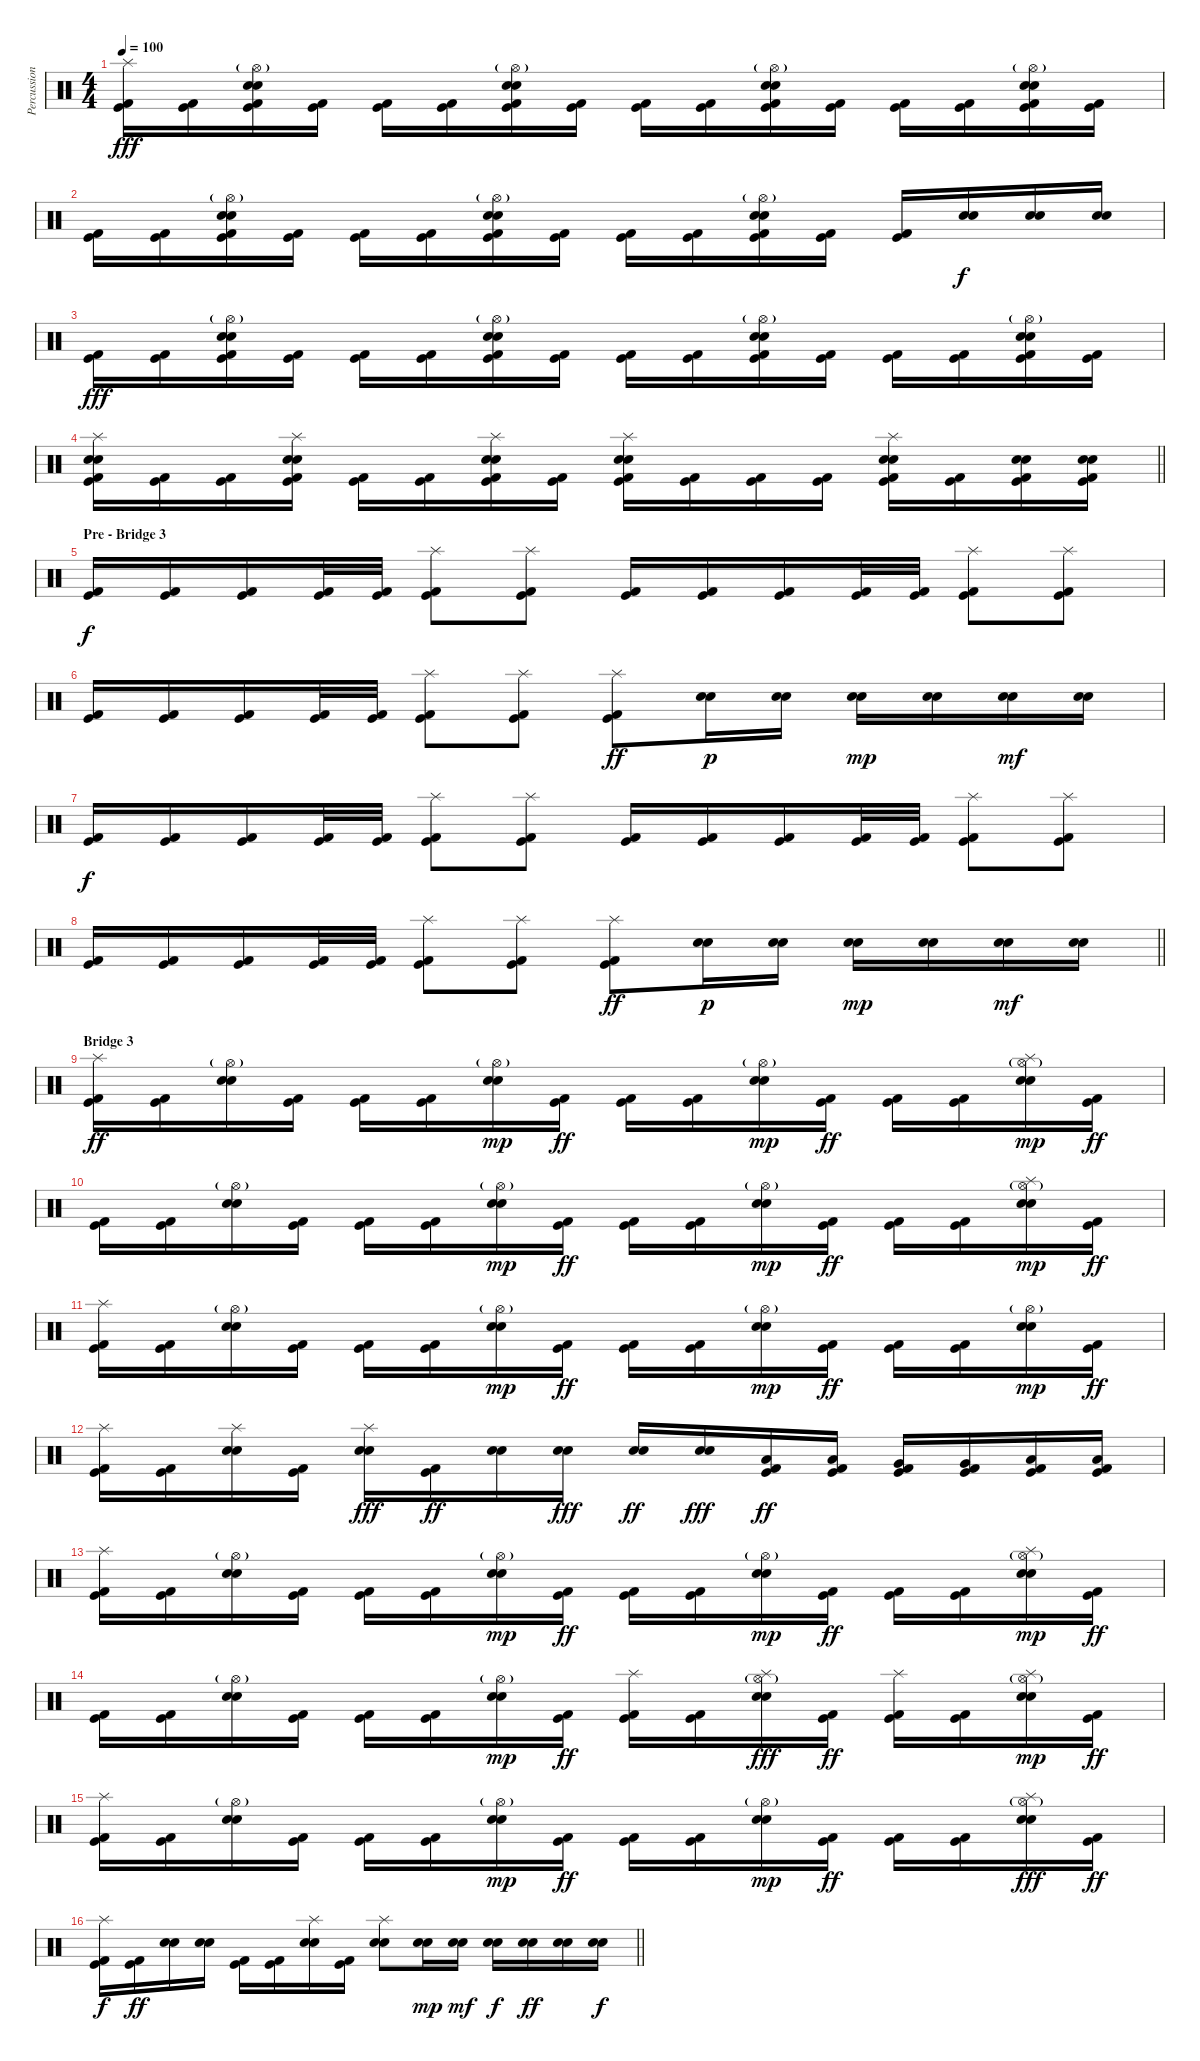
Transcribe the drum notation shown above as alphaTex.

\track ("Percussion" "Percussion") {instrument percussion}
\staff {score}
\articulation defaults
\ts (4 4)
\tempo 100
\clef neutral
\ks c
("Splash (hit)" "Kick (hit)" "Kick (hit) 2").16{dy fff} ("Kick (hit)" "Kick (hit) 2").16 ("Electric Snare (hit)" "Snare (hit) 2" "Hi-Hat (open)"{g} "Kick (hit)" "Kick (hit) 2").16 ("Kick (hit)" "Kick (hit) 2").16 ("Kick (hit)" "Kick (hit) 2").16 ("Kick (hit)" "Kick (hit) 2").16 ("Electric Snare (hit)" "Snare (hit) 2" "Hi-Hat (open)"{g} "Kick (hit)" "Kick (hit) 2").16 ("Kick (hit)" "Kick (hit) 2").16 ("Kick (hit)" "Kick (hit) 2").16 ("Kick (hit)" "Kick (hit) 2").16 ("Electric Snare (hit)" "Snare (hit) 2" "Hi-Hat (open)"{g} "Kick (hit)" "Kick (hit) 2").16 ("Kick (hit)" "Kick (hit) 2").16 ("Kick (hit)" "Kick (hit) 2").16 ("Kick (hit)" "Kick (hit) 2").16 ("Electric Snare (hit)" "Snare (hit) 2" "Hi-Hat (open)"{g} "Kick (hit)" "Kick (hit) 2").16 ("Kick (hit)" "Kick (hit) 2").16 |
("Kick (hit)" "Kick (hit) 2").16 ("Kick (hit)" "Kick (hit) 2").16 ("Electric Snare (hit)" "Snare (hit) 2" "Hi-Hat (open)"{g} "Kick (hit)" "Kick (hit) 2").16 ("Kick (hit)" "Kick (hit) 2").16 ("Kick (hit)" "Kick (hit) 2").16 ("Kick (hit)" "Kick (hit) 2").16 ("Electric Snare (hit)" "Snare (hit) 2" "Hi-Hat (open)"{g} "Kick (hit)" "Kick (hit) 2").16 ("Kick (hit)" "Kick (hit) 2").16 ("Kick (hit)" "Kick (hit) 2").16 ("Kick (hit)" "Kick (hit) 2").16 ("Electric Snare (hit)" "Snare (hit) 2" "Hi-Hat (open)"{g} "Kick (hit)" "Kick (hit) 2").16 ("Kick (hit)" "Kick (hit) 2").16 ("Kick (hit)" "Kick (hit) 2").16 ("Electric Snare (hit)" "Snare (hit) 2").16{dy f} ("Electric Snare (hit)" "Snare (hit) 2").16 ("Electric Snare (hit)" "Snare (hit) 2").16 |
("Kick (hit)" "Kick (hit) 2").16{dy fff} ("Kick (hit)" "Kick (hit) 2").16 ("Electric Snare (hit)" "Snare (hit) 2" "Hi-Hat (open)"{g} "Kick (hit)" "Kick (hit) 2").16 ("Kick (hit)" "Kick (hit) 2").16 ("Kick (hit)" "Kick (hit) 2").16 ("Kick (hit)" "Kick (hit) 2").16 ("Electric Snare (hit)" "Snare (hit) 2" "Hi-Hat (open)"{g} "Kick (hit)" "Kick (hit) 2").16 ("Kick (hit)" "Kick (hit) 2").16 ("Kick (hit)" "Kick (hit) 2").16 ("Kick (hit)" "Kick (hit) 2").16 ("Electric Snare (hit)" "Snare (hit) 2" "Hi-Hat (open)"{g} "Kick (hit)" "Kick (hit) 2").16 ("Kick (hit)" "Kick (hit) 2").16 ("Kick (hit)" "Kick (hit) 2").16 ("Kick (hit)" "Kick (hit) 2").16 ("Electric Snare (hit)" "Snare (hit) 2" "Hi-Hat (open)"{g} "Kick (hit)" "Kick (hit) 2").16 ("Kick (hit)" "Kick (hit) 2").16 |
\barLineRight lightlight
("Splash (hit)" "Electric Snare (hit)" "Snare (hit) 2" "Kick (hit)" "Kick (hit) 2").16 ("Kick (hit)" "Kick (hit) 2").16 ("Kick (hit)" "Kick (hit) 2").16 ("Splash (hit)" "Electric Snare (hit)" "Snare (hit) 2" "Kick (hit)" "Kick (hit) 2").16 ("Kick (hit)" "Kick (hit) 2").16 ("Kick (hit)" "Kick (hit) 2").16 ("Splash (hit)" "Electric Snare (hit)" "Snare (hit) 2" "Kick (hit)" "Kick (hit) 2").16 ("Kick (hit)" "Kick (hit) 2").16 ("Splash (hit)" "Electric Snare (hit)" "Snare (hit) 2" "Kick (hit)" "Kick (hit) 2").16 ("Kick (hit)" "Kick (hit) 2").16 ("Kick (hit)" "Kick (hit) 2").16 ("Kick (hit)" "Kick (hit) 2").16 ("Splash (hit)" "Electric Snare (hit)" "Snare (hit) 2" "Kick (hit)" "Kick (hit) 2").16 ("Kick (hit)" "Kick (hit) 2").16 ("Electric Snare (hit)" "Snare (hit) 2" "Kick (hit)" "Kick (hit) 2").16 ("Electric Snare (hit)" "Snare (hit) 2" "Kick (hit)" "Kick (hit) 2").16 |
\section ("" "Pre - Bridge 3")
("Kick (hit)" "Kick (hit) 2").16{dy f} ("Kick (hit)" "Kick (hit) 2").16 ("Kick (hit)" "Kick (hit) 2").16 ("Kick (hit)" "Kick (hit) 2").32 ("Kick (hit)" "Kick (hit) 2").32 ("Splash (hit)" "Kick (hit)" "Kick (hit) 2").8 ("Splash (hit)" "Kick (hit)" "Kick (hit) 2").8 ("Kick (hit)" "Kick (hit) 2").16 ("Kick (hit)" "Kick (hit) 2").16 ("Kick (hit)" "Kick (hit) 2").16 ("Kick (hit)" "Kick (hit) 2").32 ("Kick (hit)" "Kick (hit) 2").32 ("Splash (hit)" "Kick (hit)" "Kick (hit) 2").8 ("Splash (hit)" "Kick (hit)" "Kick (hit) 2").8 |
("Kick (hit)" "Kick (hit) 2").16 ("Kick (hit)" "Kick (hit) 2").16 ("Kick (hit)" "Kick (hit) 2").16 ("Kick (hit)" "Kick (hit) 2").32 ("Kick (hit)" "Kick (hit) 2").32 ("Splash (hit)" "Kick (hit)" "Kick (hit) 2").8 ("Splash (hit)" "Kick (hit)" "Kick (hit) 2").8 ("Splash (hit)" "Kick (hit)" "Kick (hit) 2").8{dy ff} ("Snare (hit) 2" "Electric Snare (hit)").16{dy p} ("Snare (hit) 2" "Electric Snare (hit)").16 ("Snare (hit) 2" "Electric Snare (hit)").16{dy mp} ("Snare (hit) 2" "Electric Snare (hit)").16 ("Snare (hit) 2" "Electric Snare (hit)").16{dy mf} ("Snare (hit) 2" "Electric Snare (hit)").16 |
("Kick (hit)" "Kick (hit) 2").16{dy f} ("Kick (hit)" "Kick (hit) 2").16 ("Kick (hit)" "Kick (hit) 2").16 ("Kick (hit)" "Kick (hit) 2").32 ("Kick (hit)" "Kick (hit) 2").32 ("Splash (hit)" "Kick (hit)" "Kick (hit) 2").8 ("Splash (hit)" "Kick (hit)" "Kick (hit) 2").8 ("Kick (hit)" "Kick (hit) 2").16 ("Kick (hit)" "Kick (hit) 2").16 ("Kick (hit)" "Kick (hit) 2").16 ("Kick (hit)" "Kick (hit) 2").32 ("Kick (hit)" "Kick (hit) 2").32 ("Splash (hit)" "Kick (hit)" "Kick (hit) 2").8 ("Splash (hit)" "Kick (hit)" "Kick (hit) 2").8 |
\barLineRight lightlight
("Kick (hit)" "Kick (hit) 2").16 ("Kick (hit)" "Kick (hit) 2").16 ("Kick (hit)" "Kick (hit) 2").16 ("Kick (hit)" "Kick (hit) 2").32 ("Kick (hit)" "Kick (hit) 2").32 ("Splash (hit)" "Kick (hit)" "Kick (hit) 2").8 ("Splash (hit)" "Kick (hit)" "Kick (hit) 2").8 ("Splash (hit)" "Kick (hit)" "Kick (hit) 2").8{dy ff} ("Snare (hit) 2" "Electric Snare (hit)").16{dy p} ("Snare (hit) 2" "Electric Snare (hit)").16 ("Snare (hit) 2" "Electric Snare (hit)").16{dy mp} ("Snare (hit) 2" "Electric Snare (hit)").16 ("Snare (hit) 2" "Electric Snare (hit)").16{dy mf} ("Snare (hit) 2" "Electric Snare (hit)").16 |
\section ("" "Bridge 3")
("Splash (hit)" "Kick (hit)" "Kick (hit) 2").16{dy ff} ("Kick (hit)" "Kick (hit) 2").16 ("Hi-Hat (open)"{g} "Electric Snare (hit)" "Snare (hit) 2").16 ("Kick (hit)" "Kick (hit) 2").16 ("Kick (hit)" "Kick (hit) 2").16 ("Kick (hit)" "Kick (hit) 2").16 ("Hi-Hat (open)"{g} "Electric Snare (hit)" "Snare (hit) 2").16{dy mp} ("Kick (hit)" "Kick (hit) 2").16{dy ff} ("Kick (hit)" "Kick (hit) 2").16 ("Kick (hit)" "Kick (hit) 2").16 ("Hi-Hat (open)"{g} "Electric Snare (hit)" "Snare (hit) 2").16{dy mp} ("Kick (hit)" "Kick (hit) 2").16{dy ff} ("Kick (hit)" "Kick (hit) 2").16 ("Kick (hit)" "Kick (hit) 2").16 ("Hi-Hat (open)"{g} "Electric Snare (hit)" "Snare (hit) 2" "Splash (hit)").16{dy mp} ("Kick (hit)" "Kick (hit) 2").16{dy ff} |
("Kick (hit)" "Kick (hit) 2").16 ("Kick (hit)" "Kick (hit) 2").16 ("Hi-Hat (open)"{g} "Electric Snare (hit)" "Snare (hit) 2").16 ("Kick (hit)" "Kick (hit) 2").16 ("Kick (hit)" "Kick (hit) 2").16 ("Kick (hit)" "Kick (hit) 2").16 ("Hi-Hat (open)"{g} "Electric Snare (hit)" "Snare (hit) 2").16{dy mp} ("Kick (hit)" "Kick (hit) 2").16{dy ff} ("Kick (hit)" "Kick (hit) 2").16 ("Kick (hit)" "Kick (hit) 2").16 ("Hi-Hat (open)"{g} "Electric Snare (hit)" "Snare (hit) 2").16{dy mp} ("Kick (hit)" "Kick (hit) 2").16{dy ff} ("Kick (hit)" "Kick (hit) 2").16 ("Kick (hit)" "Kick (hit) 2").16 ("Hi-Hat (open)"{g} "Electric Snare (hit)" "Snare (hit) 2" "Splash (hit)").16{dy mp} ("Kick (hit)" "Kick (hit) 2").16{dy ff} |
("Splash (hit)" "Kick (hit)" "Kick (hit) 2").16 ("Kick (hit)" "Kick (hit) 2").16 ("Hi-Hat (open)"{g} "Electric Snare (hit)" "Snare (hit) 2").16 ("Kick (hit)" "Kick (hit) 2").16 ("Kick (hit)" "Kick (hit) 2").16 ("Kick (hit)" "Kick (hit) 2").16 ("Hi-Hat (open)"{g} "Electric Snare (hit)" "Snare (hit) 2").16{dy mp} ("Kick (hit)" "Kick (hit) 2").16{dy ff} ("Kick (hit)" "Kick (hit) 2").16 ("Kick (hit)" "Kick (hit) 2").16 ("Hi-Hat (open)"{g} "Electric Snare (hit)" "Snare (hit) 2").16{dy mp} ("Kick (hit)" "Kick (hit) 2").16{dy ff} ("Kick (hit)" "Kick (hit) 2").16 ("Kick (hit)" "Kick (hit) 2").16 ("Hi-Hat (open)"{g} "Electric Snare (hit)" "Snare (hit) 2").16{dy mp} ("Kick (hit)" "Kick (hit) 2").16{dy ff} |
("Splash (hit)" "Kick (hit)" "Kick (hit) 2").16 ("Kick (hit)" "Kick (hit) 2").16 ("Splash (hit)" "Electric Snare (hit)" "Snare (hit) 2").16 ("Kick (hit)" "Kick (hit) 2").16 ("Splash (hit)" "Electric Snare (hit)" "Snare (hit) 2").16{dy fff} ("Kick (hit)" "Kick (hit) 2").16{dy ff} ("Electric Snare (hit)" "Snare (hit) 2").16 ("Electric Snare (hit)" "Snare (hit) 2").16{dy fff} ("Electric Snare (hit)" "Snare (hit) 2").16{dy ff} ("Electric Snare (hit)" "Snare (hit) 2").16{dy fff} ("Low Tom (hit)" "Kick (hit)" "Kick (hit) 2").16{dy ff} ("Low Tom (hit)" "Kick (hit)" "Kick (hit) 2").16 ("Very Low Tom (hit)" "Kick (hit)" "Kick (hit) 2").16 ("Very Low Tom (hit)" "Kick (hit)" "Kick (hit) 2").16 ("Low Floor Tom (hit)" "Kick (hit)" "Kick (hit) 2").16 ("Low Floor Tom (hit)" "Kick (hit)" "Kick (hit) 2").16 |
("Splash (hit)" "Kick (hit)" "Kick (hit) 2").16 ("Kick (hit)" "Kick (hit) 2").16 ("Hi-Hat (open)"{g} "Electric Snare (hit)" "Snare (hit) 2").16 ("Kick (hit)" "Kick (hit) 2").16 ("Kick (hit)" "Kick (hit) 2").16 ("Kick (hit)" "Kick (hit) 2").16 ("Hi-Hat (open)"{g} "Electric Snare (hit)" "Snare (hit) 2").16{dy mp} ("Kick (hit)" "Kick (hit) 2").16{dy ff} ("Kick (hit)" "Kick (hit) 2").16 ("Kick (hit)" "Kick (hit) 2").16 ("Hi-Hat (open)"{g} "Electric Snare (hit)" "Snare (hit) 2").16{dy mp} ("Kick (hit)" "Kick (hit) 2").16{dy ff} ("Kick (hit)" "Kick (hit) 2").16 ("Kick (hit)" "Kick (hit) 2").16 ("Hi-Hat (open)"{g} "Electric Snare (hit)" "Snare (hit) 2" "Splash (hit)").16{dy mp} ("Kick (hit)" "Kick (hit) 2").16{dy ff} |
("Kick (hit)" "Kick (hit) 2").16 ("Kick (hit)" "Kick (hit) 2").16 ("Hi-Hat (open)"{g} "Electric Snare (hit)" "Snare (hit) 2").16 ("Kick (hit)" "Kick (hit) 2").16 ("Kick (hit)" "Kick (hit) 2").16 ("Kick (hit)" "Kick (hit) 2").16 ("Hi-Hat (open)"{g} "Electric Snare (hit)" "Snare (hit) 2").16{dy mp} ("Kick (hit)" "Kick (hit) 2").16{dy ff} ("Splash (hit)" "Kick (hit)" "Kick (hit) 2").16 ("Kick (hit)" "Kick (hit) 2").16 ("Hi-Hat (open)"{g} "Electric Snare (hit)" "Snare (hit) 2" "Splash (hit)").16{dy fff} ("Kick (hit)" "Kick (hit) 2").16{dy ff} ("Splash (hit)" "Kick (hit)" "Kick (hit) 2").16 ("Kick (hit)" "Kick (hit) 2").16 ("Hi-Hat (open)"{g} "Electric Snare (hit)" "Snare (hit) 2" "Splash (hit)").16{dy mp} ("Kick (hit)" "Kick (hit) 2").16{dy ff} |
("Splash (hit)" "Kick (hit)" "Kick (hit) 2").16 ("Kick (hit)" "Kick (hit) 2").16 ("Hi-Hat (open)"{g} "Electric Snare (hit)" "Snare (hit) 2").16 ("Kick (hit)" "Kick (hit) 2").16 ("Kick (hit)" "Kick (hit) 2").16 ("Kick (hit)" "Kick (hit) 2").16 ("Hi-Hat (open)"{g} "Electric Snare (hit)" "Snare (hit) 2").16{dy mp} ("Kick (hit)" "Kick (hit) 2").16{dy ff} ("Kick (hit)" "Kick (hit) 2").16 ("Kick (hit)" "Kick (hit) 2").16 ("Hi-Hat (open)"{g} "Electric Snare (hit)" "Snare (hit) 2").16{dy mp} ("Kick (hit)" "Kick (hit) 2").16{dy ff} ("Kick (hit)" "Kick (hit) 2").16 ("Kick (hit)" "Kick (hit) 2").16 ("Hi-Hat (open)"{g} "Electric Snare (hit)" "Snare (hit) 2" "Splash (hit)").16{dy fff} ("Kick (hit)" "Kick (hit) 2").16{dy ff} |
\barLineRight lightlight
("Splash (hit)" "Kick (hit)" "Kick (hit) 2").16{dy f} ("Kick (hit)" "Kick (hit) 2").16{dy ff} ("Electric Snare (hit)" "Snare (hit) 2").16 ("Electric Snare (hit)" "Snare (hit) 2").16 ("Kick (hit)" "Kick (hit) 2").16 ("Kick (hit)" "Kick (hit) 2").16 ("Splash (hit)" "Electric Snare (hit)" "Snare (hit) 2").16 ("Kick (hit)" "Kick (hit) 2").16 ("Splash (hit)" "Electric Snare (hit)" "Snare (hit) 2").8 ("Electric Snare (hit)" "Snare (hit) 2").16{dy mp} ("Electric Snare (hit)" "Snare (hit) 2").16{dy mf} ("Electric Snare (hit)" "Snare (hit) 2").16{dy f} ("Electric Snare (hit)" "Snare (hit) 2").16{dy ff} ("Electric Snare (hit)" "Snare (hit) 2").16 ("Electric Snare (hit)" "Snare (hit) 2").16{dy f}
